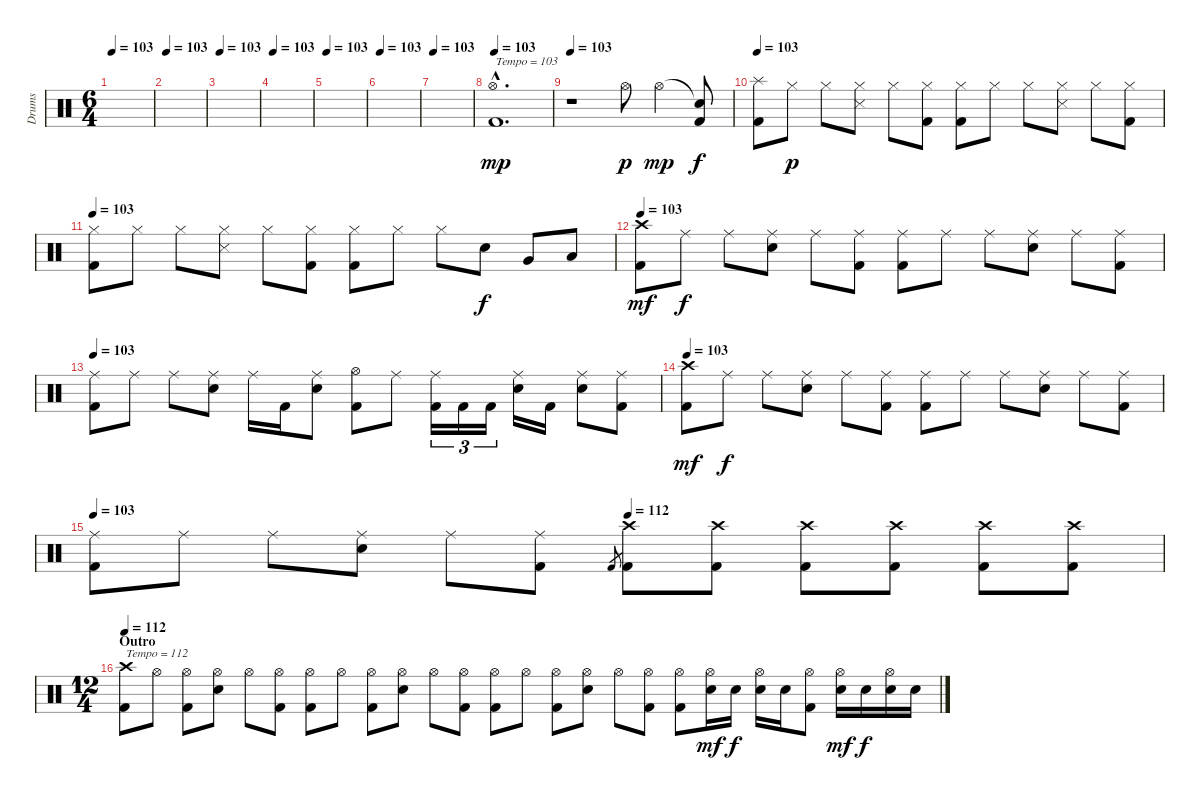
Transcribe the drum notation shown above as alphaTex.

\track ("Drums" "Drums") {instrument percussion}
\staff {score}
\articulation defaults
\ts (6 4)
\tempo 103
\clef neutral
\ks c
|
\tempo 103
|
\tempo 103
|
\tempo 103
|
\tempo 103
|
\tempo 103
|
\tempo 103
|
\tempo 103
("Hi-Hat (open)"{hac} "Kick (hit) 2"{hac}).1{d txt "Tempo = 103" dy mp} |
\tempo 103
r.1 "Hi-Hat (open)".8{dy p} "Hi-Hat (open)".4{dy mp} ("Snare (hit)"{t} "Kick (hit) 2").8{dy f} |
\tempo 103
("Splash (hit)" "Kick (hit) 2").8 "Hi-Hat (closed)".8{dy p} "Hi-Hat (closed)".8 ("Hi-Hat (closed)" "Snare (side stick) 3").8 "Hi-Hat (closed)".8 ("Hi-Hat (closed)" "Kick (hit) 2").8 ("Hi-Hat (closed)" "Kick (hit) 2").8 "Hi-Hat (closed)".8 "Hi-Hat (closed)".8 ("Hi-Hat (closed)" "Snare (side stick) 3").8 "Hi-Hat (closed)".8 ("Hi-Hat (closed)" "Kick (hit) 2").8 |
\tempo 103
("Hi-Hat (closed)" "Kick (hit) 2").8 "Hi-Hat (closed)".8 "Hi-Hat (closed)".8 ("Hi-Hat (closed)" "Snare (side stick) 3").8 "Hi-Hat (closed)".8 ("Hi-Hat (closed)" "Kick (hit) 2").8 ("Hi-Hat (closed)" "Kick (hit) 2").8 "Hi-Hat (closed)".8 "Hi-Hat (closed)".8 "Electric Snare (hit)".8{dy f} "Very Low Tom (hit)".8 "Low Floor Tom (hit)".8 |
\tempo 103
("Crash high (hit)" "Kick (hit) 2").8{dy mf} "Ride (middle)".8{dy f} "Ride (middle)".8 ("Ride (middle)" "Electric Snare (hit)").8 "Ride (middle)".8 ("Ride (middle)" "Kick (hit) 2").8 ("Ride (middle)" "Kick (hit) 2").8 "Ride (middle)".8 "Ride (middle)".8 ("Ride (middle)" "Electric Snare (hit)").8 "Ride (middle)".8 ("Ride (middle)" "Kick (hit) 2").8 |
\tempo 103
("Ride (middle)" "Kick (hit) 2").8 "Ride (middle)".8 "Ride (middle)".8 ("Ride (middle)" "Electric Snare (hit)").8 "Ride (middle)".16 "Kick (hit) 2".16 ("Ride (middle)" "Electric Snare (hit)").8 ("Hi-Hat (open)" "Kick (hit) 2").8 "Ride (middle)".8 ("Ride (middle)" "Kick (hit) 2").16{tu (3 2)} "Kick (hit) 2".16{tu (3 2)} "Kick (hit) 2".16{tu (3 2)} ("Ride (middle)" "Electric Snare (hit)").16 "Kick (hit) 2".16 ("Ride (middle)" "Electric Snare (hit)").8 ("Ride (middle)" "Kick (hit) 2").8 |
\tempo 103
("Crash high (hit)" "Kick (hit) 2").8{dy mf} "Ride (middle)".8{dy f} "Ride (middle)".8 ("Ride (middle)" "Electric Snare (hit)").8 "Ride (middle)".8 ("Ride (middle)" "Kick (hit) 2").8 ("Ride (middle)" "Kick (hit) 2").8 "Ride (middle)".8 "Ride (middle)".8 ("Ride (middle)" "Electric Snare (hit)").8 "Ride (middle)".8 ("Ride (middle)" "Kick (hit) 2").8 |
\tempo 103
\tempo (112 0.5)
("Ride (middle)" "Kick (hit) 2").8 "Ride (middle)".8 "Ride (middle)".8 ("Ride (middle)" "Electric Snare (hit)").8 "Ride (middle)".8 ("Ride (middle)" "Kick (hit) 2").8 "Kick (hit) 2".8{gr} ("Crash high (hit)" "Kick (hit) 2").8 ("Crash high (hit)" "Kick (hit) 2").8 ("Crash high (hit)" "Kick (hit) 2").8 ("Crash high (hit)" "Kick (hit) 2").8 ("Crash high (hit)" "Kick (hit) 2").8 ("Crash high (hit)" "Kick (hit) 2").8 |
\ts (12 4)
\section ("" "Outro")
\tempo 112
("Crash high (hit)" "Kick (hit) 2").8{txt "Tempo = 112"} "Hi-Hat (open)".8 ("Hi-Hat (open)" "Kick (hit) 2").8 ("Hi-Hat (open)" "Electric Snare (hit)").8 "Hi-Hat (open)".8 ("Hi-Hat (open)" "Kick (hit) 2").8 ("Hi-Hat (open)" "Kick (hit) 2").8 "Hi-Hat (open)".8 ("Hi-Hat (open)" "Kick (hit) 2").8 ("Hi-Hat (open)" "Electric Snare (hit)").8 "Hi-Hat (open)".8 ("Hi-Hat (open)" "Kick (hit) 2").8 ("Hi-Hat (open)" "Kick (hit) 2").8 "Hi-Hat (open)".8 ("Hi-Hat (open)" "Kick (hit) 2").8 ("Hi-Hat (open)" "Electric Snare (hit)").8 "Hi-Hat (open)".8 ("Hi-Hat (open)" "Kick (hit) 2").8 ("Hi-Hat (open)" "Kick (hit) 2").8 ("Hi-Hat (open)" "Electric Snare (hit)").16{dy mf} "Electric Snare (hit)".16{dy f} ("Hi-Hat (open)" "Electric Snare (hit)").16 "Electric Snare (hit)".16 ("Hi-Hat (open)" "Kick (hit) 2").8 ("Hi-Hat (open)" "Electric Snare (hit)").16{dy mf} "Electric Snare (hit)".16{dy f} ("Hi-Hat (open)" "Electric Snare (hit)").16 "Electric Snare (hit)".16
